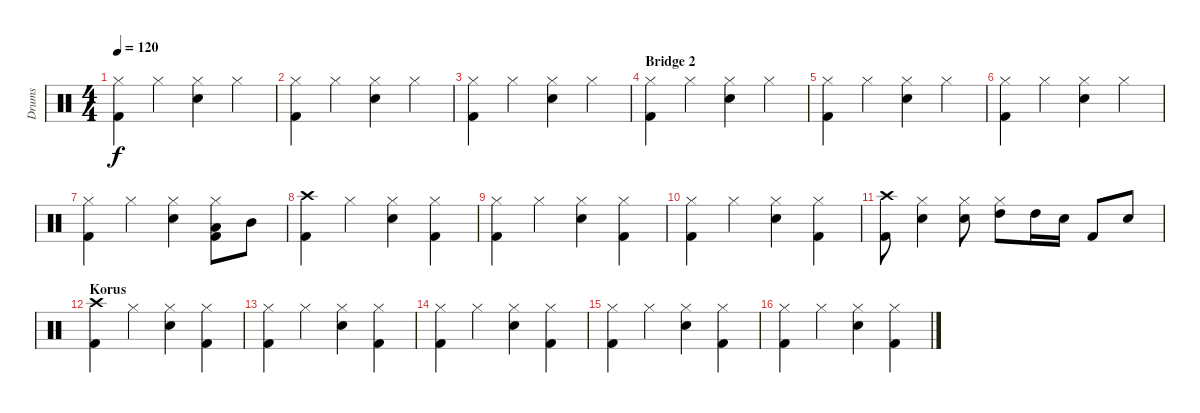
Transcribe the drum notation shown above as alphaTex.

\track ("Drums" "Drums") {instrument percussion}
\staff {score}
\articulation defaults
\ts (4 4)
\tempo 120
\clef neutral
\ks c
("Hi-Hat (closed)" "Kick (hit) 2").4{dy f} "Hi-Hat (closed)".4 ("Hi-Hat (closed)" "Electric Snare (hit)").4 "Hi-Hat (closed)".4 |
("Hi-Hat (closed)" "Kick (hit) 2").4 "Hi-Hat (closed)".4 ("Hi-Hat (closed)" "Electric Snare (hit)").4 "Hi-Hat (closed)".4 |
("Hi-Hat (closed)" "Kick (hit) 2").4 "Hi-Hat (closed)".4 ("Hi-Hat (closed)" "Electric Snare (hit)").4 "Hi-Hat (closed)".4 |
\section ("" "Bridge 2")
("Hi-Hat (closed)" "Kick (hit) 2").4 "Hi-Hat (closed)".4 ("Hi-Hat (closed)" "Electric Snare (hit)").4 "Hi-Hat (closed)".4 |
("Hi-Hat (closed)" "Kick (hit) 2").4 "Hi-Hat (closed)".4 ("Hi-Hat (closed)" "Electric Snare (hit)").4 "Hi-Hat (closed)".4 |
("Hi-Hat (closed)" "Kick (hit) 2").4 "Hi-Hat (closed)".4 ("Hi-Hat (closed)" "Electric Snare (hit)").4 "Hi-Hat (closed)".4 |
("Hi-Hat (closed)" "Kick (hit) 2").4 "Hi-Hat (closed)".4 ("Hi-Hat (closed)" "Electric Snare (hit)").4 ("Hi-Hat (closed)" "Low Tom (hit)" "Kick (hit) 2").8 "Mid Tom (hit)".8 |
("Crash high (hit)" "Kick (hit) 2").4 "Hi-Hat (closed)".4 ("Hi-Hat (closed)" "Electric Snare (hit)").4 ("Hi-Hat (closed)" "Kick (hit) 2").4 |
("Hi-Hat (closed)" "Kick (hit) 2").4 "Hi-Hat (closed)".4 ("Hi-Hat (closed)" "Electric Snare (hit)").4 ("Hi-Hat (closed)" "Kick (hit) 2").4 |
("Hi-Hat (closed)" "Kick (hit) 2").4 "Hi-Hat (closed)".4 ("Hi-Hat (closed)" "Electric Snare (hit)").4 ("Hi-Hat (closed)" "Kick (hit) 2").4 |
("Crash high (hit)" "Kick (hit) 2").8 ("Hi-Hat (closed)" "Electric Snare (hit)").4 ("Hi-Hat (closed)" "Electric Snare (hit)").8 ("Hi-Hat (closed)" "High Tom (hit)").8 "High Tom (hit)".16 "Electric Snare (hit)".16 "Kick (hit) 2".8 "Electric Snare (hit)".8 |
\section ("" "Korus")
("Crash high (hit)" "Kick (hit) 2").4 "Hi-Hat (closed)".4 ("Hi-Hat (closed)" "Electric Snare (hit)").4 ("Hi-Hat (closed)" "Kick (hit) 2").4 |
("Hi-Hat (closed)" "Kick (hit) 2").4 "Hi-Hat (closed)".4 ("Hi-Hat (closed)" "Electric Snare (hit)").4 ("Hi-Hat (closed)" "Kick (hit) 2").4 |
("Hi-Hat (closed)" "Kick (hit) 2").4 "Hi-Hat (closed)".4 ("Hi-Hat (closed)" "Electric Snare (hit)").4 ("Hi-Hat (closed)" "Kick (hit) 2").4 |
("Hi-Hat (closed)" "Kick (hit) 2").4 "Hi-Hat (closed)".4 ("Hi-Hat (closed)" "Electric Snare (hit)").4 ("Hi-Hat (closed)" "Kick (hit) 2").4 |
("Hi-Hat (closed)" "Kick (hit) 2").4 "Hi-Hat (closed)".4 ("Hi-Hat (closed)" "Electric Snare (hit)").4 ("Hi-Hat (closed)" "Kick (hit) 2").4
